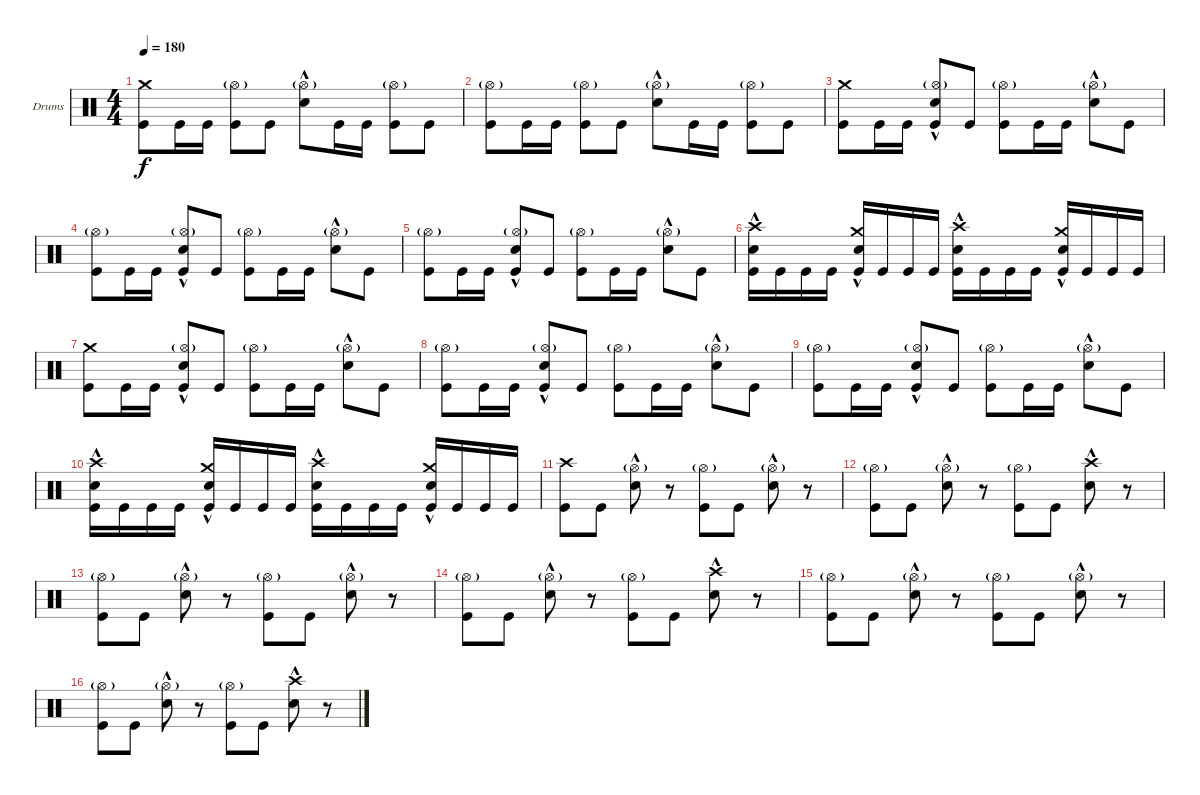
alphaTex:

\bracketExtendMode groupsimilarinstruments
\firstSystemTrackNameOrientation horizontal
\otherSystemsTrackNameOrientation horizontal
\track ("Drumkit" "Drums") {instrument percussion}
\staff {score}
\articulation defaults
\ts (4 4)
\tempo 180
\clef neutral
\scale
0.333333
\ks c
("Kick (hit)" "Crash medium (hit)").8{dy f} "Kick (hit)".16 "Kick (hit)".16 ("Kick (hit)" "Hi-Hat (open)"{g}).8 "Kick (hit)".8 ("Hi-Hat (open)"{g} "Snare (hit) 2"{hac}).8 "Kick (hit)".16 "Kick (hit)".16 ("Hi-Hat (open)"{g} "Kick (hit)").8 "Kick (hit)".8 |
\scale
0.333333 ("Kick (hit)" "Hi-Hat (open)"{g}).8 "Kick (hit)".16 "Kick (hit)".16 ("Kick (hit)" "Hi-Hat (open)"{g}).8 "Kick (hit)".8 ("Hi-Hat (open)"{g} "Snare (hit) 2"{hac}).8 "Kick (hit)".16 "Kick (hit)".16 ("Hi-Hat (open)"{g} "Kick (hit)").8 "Kick (hit)".8 |
\scale
0.333333 ("Kick (hit)" "Crash medium (hit)").8 "Kick (hit)".16 "Kick (hit)".16 ("Kick (hit)" "Hi-Hat (open)"{g} "Snare (hit) 2"{hac}).8 "Kick (hit)".8 ("Hi-Hat (open)"{g} "Kick (hit)").8 "Kick (hit)".16 "Kick (hit)".16 ("Hi-Hat (open)"{g} "Snare (hit) 2"{hac}).8 "Kick (hit)".8 |
\scale
0.333333 ("Kick (hit)" "Hi-Hat (open)"{g}).8 "Kick (hit)".16 "Kick (hit)".16 ("Kick (hit)" "Hi-Hat (open)"{g} "Snare (hit) 2"{hac}).8 "Kick (hit)".8 ("Hi-Hat (open)"{g} "Kick (hit)").8 "Kick (hit)".16 "Kick (hit)".16 ("Hi-Hat (open)"{g} "Snare (hit) 2"{hac}).8 "Kick (hit)".8 |
\scale
0.333333 ("Kick (hit)" "Hi-Hat (open)"{g}).8 "Kick (hit)".16 "Kick (hit)".16 ("Kick (hit)" "Hi-Hat (open)"{g} "Snare (hit) 2"{hac}).8 "Kick (hit)".8 ("Hi-Hat (open)"{g} "Kick (hit)").8 "Kick (hit)".16 "Kick (hit)".16 ("Hi-Hat (open)"{g} "Snare (hit) 2"{hac}).8 "Kick (hit)".8 |
\scale
0.333333 ("Kick (hit)" "Snare (hit) 2"{hac} "Crash high (hit)").16 "Kick (hit)".16 "Kick (hit)".16 "Kick (hit)".16 ("Kick (hit)" "Snare (hit) 2"{hac} "Crash medium (hit)").16 "Kick (hit)".16 "Kick (hit)".16 "Kick (hit)".16 ("Kick (hit)" "Snare (hit) 2"{hac} "Crash high (hit)").16 "Kick (hit)".16 "Kick (hit)".16 "Kick (hit)".16 ("Kick (hit)" "Snare (hit) 2"{hac} "Crash medium (hit)").16 "Kick (hit)".16 "Kick (hit)".16 "Kick (hit)".16 |
\scale
0.333333 ("Kick (hit)" "Crash medium (hit)").8 "Kick (hit)".16 "Kick (hit)".16 ("Kick (hit)" "Hi-Hat (open)"{g} "Snare (hit) 2"{hac}).8 "Kick (hit)".8 ("Hi-Hat (open)"{g} "Kick (hit)").8 "Kick (hit)".16 "Kick (hit)".16 ("Hi-Hat (open)"{g} "Snare (hit) 2"{hac}).8 "Kick (hit)".8 |
\scale
0.333333 ("Kick (hit)" "Hi-Hat (open)"{g}).8 "Kick (hit)".16 "Kick (hit)".16 ("Kick (hit)" "Hi-Hat (open)"{g} "Snare (hit) 2"{hac}).8 "Kick (hit)".8 ("Hi-Hat (open)"{g} "Kick (hit)").8 "Kick (hit)".16 "Kick (hit)".16 ("Hi-Hat (open)"{g} "Snare (hit) 2"{hac}).8 "Kick (hit)".8 |
\scale
0.333333 ("Kick (hit)" "Hi-Hat (open)"{g}).8 "Kick (hit)".16 "Kick (hit)".16 ("Kick (hit)" "Hi-Hat (open)"{g} "Snare (hit) 2"{hac}).8 "Kick (hit)".8 ("Hi-Hat (open)"{g} "Kick (hit)").8 "Kick (hit)".16 "Kick (hit)".16 ("Hi-Hat (open)"{g} "Snare (hit) 2"{hac}).8 "Kick (hit)".8 |
\scale
0.333333 ("Kick (hit)" "Snare (hit) 2"{hac} "Crash high (hit)").16 "Kick (hit)".16 "Kick (hit)".16 "Kick (hit)".16 ("Kick (hit)" "Snare (hit) 2"{hac} "Crash medium (hit)").16 "Kick (hit)".16 "Kick (hit)".16 "Kick (hit)".16 ("Kick (hit)" "Snare (hit) 2"{hac} "Crash high (hit)").16 "Kick (hit)".16 "Kick (hit)".16 "Kick (hit)".16 ("Kick (hit)" "Snare (hit) 2"{hac} "Crash medium (hit)").16 "Kick (hit)".16 "Kick (hit)".16 "Kick (hit)".16 |
\scale
0.333333 ("Crash high (hit)" "Kick (hit)").8 "Kick (hit)".8 ("Hi-Hat (open)"{g} "Snare (hit) 2"{hac}).8 r.8 ("Hi-Hat (open)"{g} "Kick (hit)").8 "Kick (hit)".8 ("Hi-Hat (open)"{g} "Snare (hit) 2"{hac}).8 r.8 |
\scale
0.333333 ("Kick (hit)" "Hi-Hat (open)"{g}).8 "Kick (hit)".8 ("Hi-Hat (open)"{g} "Snare (hit) 2"{hac}).8 r.8 ("Hi-Hat (open)"{g} "Kick (hit)").8 "Kick (hit)".8 ("Snare (hit) 2"{hac} "Crash high (hit)").8 r.8 |
\scale
0.333333 ("Kick (hit)" "Hi-Hat (open)"{g}).8 "Kick (hit)".8 ("Hi-Hat (open)"{g} "Snare (hit) 2"{hac}).8 r.8 ("Hi-Hat (open)"{g} "Kick (hit)").8 "Kick (hit)".8 ("Hi-Hat (open)"{g} "Snare (hit) 2"{hac}).8 r.8 |
\scale
0.333333 ("Kick (hit)" "Hi-Hat (open)"{g}).8 "Kick (hit)".8 ("Hi-Hat (open)"{g} "Snare (hit) 2"{hac}).8 r.8 ("Hi-Hat (open)"{g} "Kick (hit)").8 "Kick (hit)".8 ("Snare (hit) 2"{hac} "Crash high (hit)").8 r.8 |
\scale
0.333333 ("Kick (hit)" "Hi-Hat (open)"{g}).8 "Kick (hit)".8 ("Hi-Hat (open)"{g} "Snare (hit) 2"{hac}).8 r.8 ("Hi-Hat (open)"{g} "Kick (hit)").8 "Kick (hit)".8 ("Hi-Hat (open)"{g} "Snare (hit) 2"{hac}).8 r.8 |
\scale
0.333333 ("Kick (hit)" "Hi-Hat (open)"{g}).8 "Kick (hit)".8 ("Hi-Hat (open)"{g} "Snare (hit) 2"{hac}).8 r.8 ("Hi-Hat (open)"{g} "Kick (hit)").8 "Kick (hit)".8 ("Snare (hit) 2"{hac} "Crash high (hit)").8 r.8
